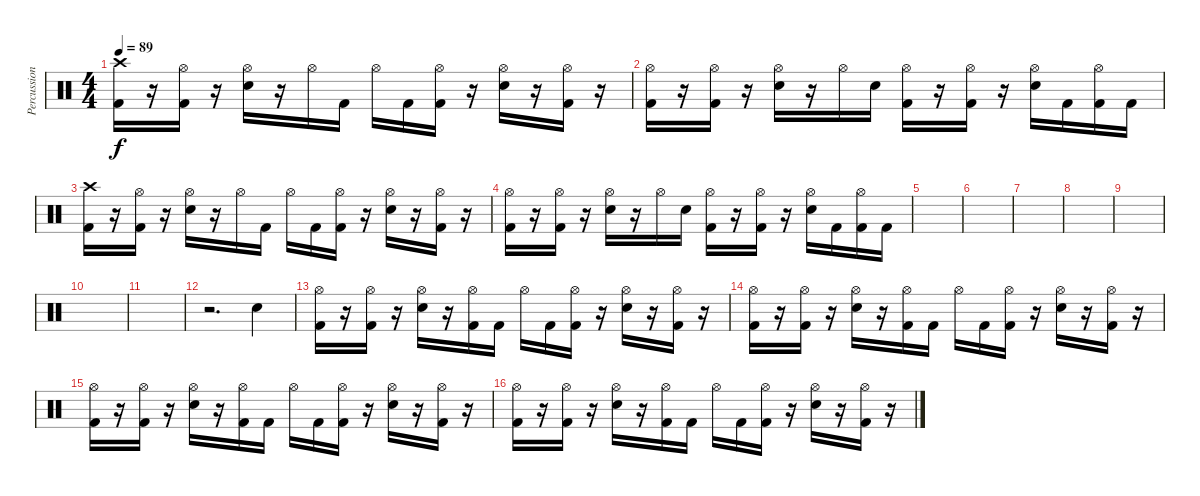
\track ("Percussion" "Percussion") {instrument percussion}
\staff {score}
\articulation defaults
\ts (4 4)
\tempo 89
\clef neutral
\ks c
("Crash high (hit)" "Kick (hit) 2").16{dy f} r.16 ("Hi-Hat (open)" "Kick (hit) 2").16 r.16 ("Hi-Hat (open)" "Electric Snare (hit)").16 r.16 "Hi-Hat (open)".16 "Kick (hit) 2".16 "Hi-Hat (open)".16 "Kick (hit) 2".16 ("Hi-Hat (open)" "Kick (hit) 2").16 r.16 ("Hi-Hat (open)" "Electric Snare (hit)").16 r.16 ("Hi-Hat (open)" "Kick (hit) 2").16 r.16 |
("Hi-Hat (open)" "Kick (hit) 2").16 r.16 ("Hi-Hat (open)" "Kick (hit) 2").16 r.16 ("Hi-Hat (open)" "Electric Snare (hit)").16 r.16 "Hi-Hat (open)".16 "Electric Snare (hit)".16 ("Hi-Hat (open)" "Kick (hit) 2").16 r.16 ("Hi-Hat (open)" "Kick (hit) 2").16 r.16 ("Hi-Hat (open)" "Electric Snare (hit)").16 "Kick (hit) 2".16 ("Hi-Hat (open)" "Kick (hit) 2").16 "Kick (hit) 2".16 |
("Crash high (hit)" "Kick (hit) 2").16 r.16 ("Hi-Hat (open)" "Kick (hit) 2").16 r.16 ("Hi-Hat (open)" "Electric Snare (hit)").16 r.16 "Hi-Hat (open)".16 "Kick (hit) 2".16 "Hi-Hat (open)".16 "Kick (hit) 2".16 ("Hi-Hat (open)" "Kick (hit) 2").16 r.16 ("Hi-Hat (open)" "Electric Snare (hit)").16 r.16 ("Hi-Hat (open)" "Kick (hit) 2").16 r.16 |
("Hi-Hat (open)" "Kick (hit) 2").16 r.16 ("Hi-Hat (open)" "Kick (hit) 2").16 r.16 ("Hi-Hat (open)" "Electric Snare (hit)").16 r.16 "Hi-Hat (open)".16 "Electric Snare (hit)".16 ("Hi-Hat (open)" "Kick (hit) 2").16 r.16 ("Hi-Hat (open)" "Kick (hit) 2").16 r.16 ("Hi-Hat (open)" "Electric Snare (hit)").16 "Kick (hit) 2".16 ("Hi-Hat (open)" "Kick (hit) 2").16 "Kick (hit) 2".16 |
|
|
|
|
|
|
|
r.2{d} "Electric Snare (hit)".4 |
("Hi-Hat (open)" "Kick (hit) 2").16 r.16 ("Hi-Hat (open)" "Kick (hit) 2").16 r.16 ("Hi-Hat (open)" "Electric Snare (hit)").16 r.16 ("Hi-Hat (open)" "Kick (hit) 2").16 "Kick (hit) 2".16 "Hi-Hat (open)".16 "Kick (hit) 2".16 ("Hi-Hat (open)" "Kick (hit) 2").16 r.16 ("Hi-Hat (open)" "Electric Snare (hit)").16 r.16 ("Hi-Hat (open)" "Kick (hit) 2").16 r.16 |
("Hi-Hat (open)" "Kick (hit) 2").16 r.16 ("Hi-Hat (open)" "Kick (hit) 2").16 r.16 ("Hi-Hat (open)" "Electric Snare (hit)").16 r.16 ("Hi-Hat (open)" "Kick (hit) 2").16 "Kick (hit) 2".16 "Hi-Hat (open)".16 "Kick (hit) 2".16 ("Hi-Hat (open)" "Kick (hit) 2").16 r.16 ("Hi-Hat (open)" "Electric Snare (hit)").16 r.16 ("Hi-Hat (open)" "Kick (hit) 2").16 r.16 |
("Hi-Hat (open)" "Kick (hit) 2").16 r.16 ("Hi-Hat (open)" "Kick (hit) 2").16 r.16 ("Hi-Hat (open)" "Electric Snare (hit)").16 r.16 ("Hi-Hat (open)" "Kick (hit) 2").16 "Kick (hit) 2".16 "Hi-Hat (open)".16 "Kick (hit) 2".16 ("Hi-Hat (open)" "Kick (hit) 2").16 r.16 ("Hi-Hat (open)" "Electric Snare (hit)").16 r.16 ("Hi-Hat (open)" "Kick (hit) 2").16 r.16 |
("Hi-Hat (open)" "Kick (hit) 2").16 r.16 ("Hi-Hat (open)" "Kick (hit) 2").16 r.16 ("Hi-Hat (open)" "Electric Snare (hit)").16 r.16 ("Hi-Hat (open)" "Kick (hit) 2").16 "Kick (hit) 2".16 "Hi-Hat (open)".16 "Kick (hit) 2".16 ("Hi-Hat (open)" "Kick (hit) 2").16 r.16 ("Hi-Hat (open)" "Electric Snare (hit)").16 r.16 ("Hi-Hat (open)" "Kick (hit) 2").16 r.16
